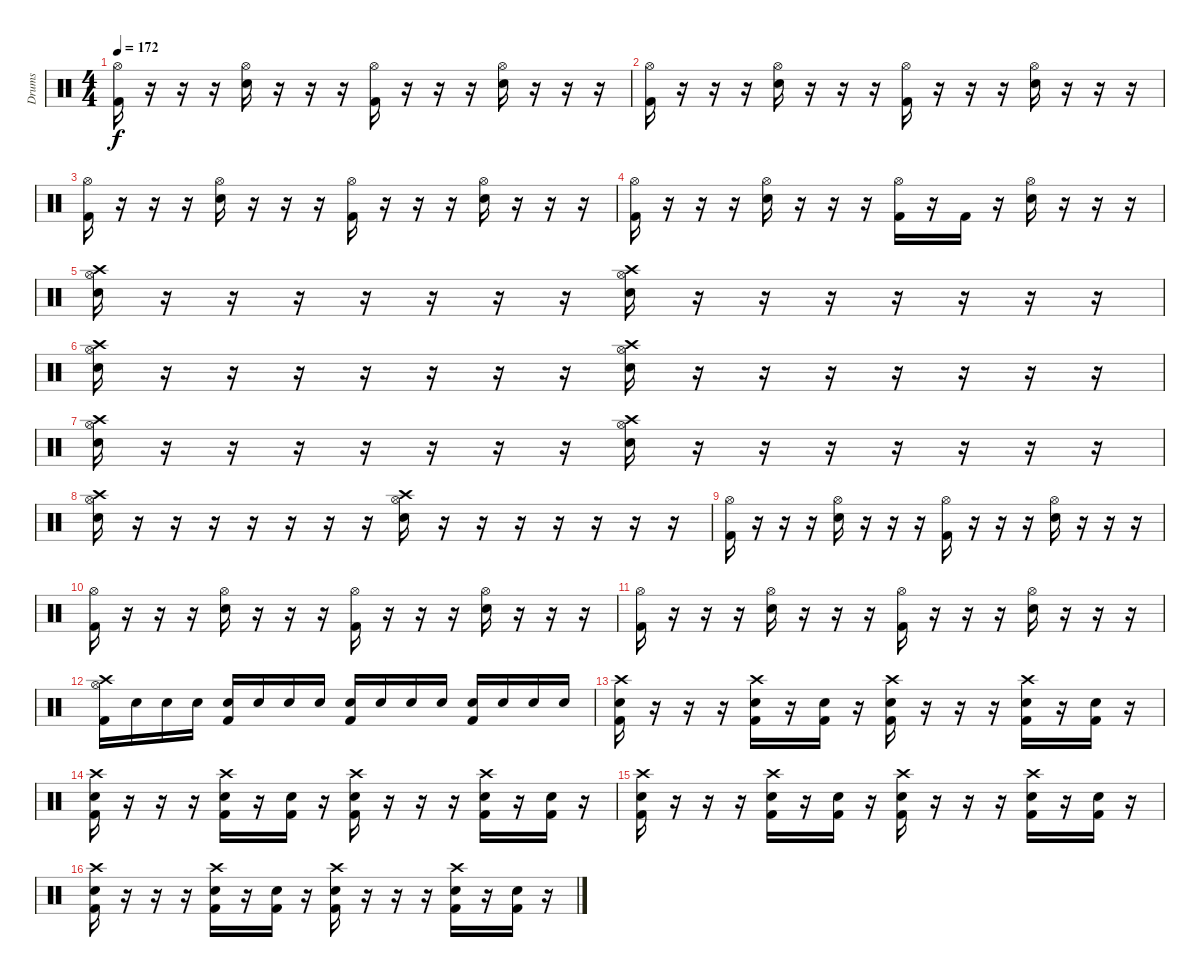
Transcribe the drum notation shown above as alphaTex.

\track ("Drums" "Drums") {instrument percussion}
\staff {score}
\articulation defaults
\ts (4 4)
\tempo 172
\clef neutral
\ks c
("Hi-Hat (open)" "Kick (hit) 2").16{dy f} r.16 r.16 r.16 ("Hi-Hat (open)" "Electric Snare (hit)").16 r.16 r.16 r.16 ("Hi-Hat (open)" "Kick (hit) 2").16 r.16 r.16 r.16 ("Hi-Hat (open)" "Electric Snare (hit)").16 r.16 r.16 r.16 |
("Hi-Hat (open)" "Kick (hit) 2").16 r.16 r.16 r.16 ("Hi-Hat (open)" "Electric Snare (hit)").16 r.16 r.16 r.16 ("Hi-Hat (open)" "Kick (hit) 2").16 r.16 r.16 r.16 ("Hi-Hat (open)" "Electric Snare (hit)").16 r.16 r.16 r.16 |
("Hi-Hat (open)" "Kick (hit) 2").16 r.16 r.16 r.16 ("Hi-Hat (open)" "Electric Snare (hit)").16 r.16 r.16 r.16 ("Hi-Hat (open)" "Kick (hit) 2").16 r.16 r.16 r.16 ("Hi-Hat (open)" "Electric Snare (hit)").16 r.16 r.16 r.16 |
("Hi-Hat (open)" "Kick (hit) 2").16 r.16 r.16 r.16 ("Hi-Hat (open)" "Electric Snare (hit)").16 r.16 r.16 r.16 ("Hi-Hat (open)" "Kick (hit) 2").16 r.16 "Kick (hit) 2".16 r.16 ("Hi-Hat (open)" "Electric Snare (hit)").16 r.16 r.16 r.16 |
("Crash high (hit)" "Hi-Hat (open)" "Electric Snare (hit)").16 r.16 r.16 r.16 r.16 r.16 r.16 r.16 ("Crash high (hit)" "Hi-Hat (open)" "Electric Snare (hit)").16 r.16 r.16 r.16 r.16 r.16 r.16 r.16 |
("Crash high (hit)" "Hi-Hat (open)" "Electric Snare (hit)").16 r.16 r.16 r.16 r.16 r.16 r.16 r.16 ("Crash high (hit)" "Hi-Hat (open)" "Electric Snare (hit)").16 r.16 r.16 r.16 r.16 r.16 r.16 r.16 |
("Crash high (hit)" "Hi-Hat (open)" "Electric Snare (hit)").16 r.16 r.16 r.16 r.16 r.16 r.16 r.16 ("Crash high (hit)" "Hi-Hat (open)" "Electric Snare (hit)").16 r.16 r.16 r.16 r.16 r.16 r.16 r.16 |
("Crash high (hit)" "Hi-Hat (open)" "Electric Snare (hit)").16 r.16 r.16 r.16 r.16 r.16 r.16 r.16 ("Crash high (hit)" "Hi-Hat (open)" "Electric Snare (hit)").16 r.16 r.16 r.16 r.16 r.16 r.16 r.16 |
("Hi-Hat (open)" "Kick (hit) 2").16 r.16 r.16 r.16 ("Hi-Hat (open)" "Electric Snare (hit)").16 r.16 r.16 r.16 ("Hi-Hat (open)" "Kick (hit) 2").16 r.16 r.16 r.16 ("Hi-Hat (open)" "Electric Snare (hit)").16 r.16 r.16 r.16 |
("Hi-Hat (open)" "Kick (hit) 2").16 r.16 r.16 r.16 ("Hi-Hat (open)" "Electric Snare (hit)").16 r.16 r.16 r.16 ("Hi-Hat (open)" "Kick (hit) 2").16 r.16 r.16 r.16 ("Hi-Hat (open)" "Electric Snare (hit)").16 r.16 r.16 r.16 |
("Hi-Hat (open)" "Kick (hit) 2").16 r.16 r.16 r.16 ("Hi-Hat (open)" "Electric Snare (hit)").16 r.16 r.16 r.16 ("Hi-Hat (open)" "Kick (hit) 2").16 r.16 r.16 r.16 ("Hi-Hat (open)" "Electric Snare (hit)").16 r.16 r.16 r.16 |
("Crash high (hit)" "Hi-Hat (open)" "Kick (hit) 2").16 "Electric Snare (hit)".16 "Electric Snare (hit)".16 "Electric Snare (hit)".16 ("Electric Snare (hit)" "Kick (hit) 2").16 "Electric Snare (hit)".16 "Electric Snare (hit)".16 "Electric Snare (hit)".16 ("Electric Snare (hit)" "Kick (hit) 2").16 "Electric Snare (hit)".16 "Electric Snare (hit)".16 "Electric Snare (hit)".16 ("Electric Snare (hit)" "Kick (hit) 2").16 "Electric Snare (hit)".16 "Electric Snare (hit)".16 "Electric Snare (hit)".16 |
("Crash high (hit)" "Electric Snare (hit)" "Kick (hit) 2").16 r.16 r.16 r.16 ("Crash high (hit)" "Electric Snare (hit)" "Kick (hit) 2").16 r.16 ("Electric Snare (hit)" "Kick (hit) 2").16 r.16 ("Crash high (hit)" "Electric Snare (hit)" "Kick (hit) 2").16 r.16 r.16 r.16 ("Crash high (hit)" "Electric Snare (hit)" "Kick (hit) 2").16 r.16 ("Electric Snare (hit)" "Kick (hit) 2").16 r.16 |
("Crash high (hit)" "Electric Snare (hit)" "Kick (hit) 2").16 r.16 r.16 r.16 ("Crash high (hit)" "Electric Snare (hit)" "Kick (hit) 2").16 r.16 ("Electric Snare (hit)" "Kick (hit) 2").16 r.16 ("Crash high (hit)" "Electric Snare (hit)" "Kick (hit) 2").16 r.16 r.16 r.16 ("Crash high (hit)" "Electric Snare (hit)" "Kick (hit) 2").16 r.16 ("Electric Snare (hit)" "Kick (hit) 2").16 r.16 |
("Crash high (hit)" "Electric Snare (hit)" "Kick (hit) 2").16 r.16 r.16 r.16 ("Crash high (hit)" "Electric Snare (hit)" "Kick (hit) 2").16 r.16 ("Electric Snare (hit)" "Kick (hit) 2").16 r.16 ("Crash high (hit)" "Electric Snare (hit)" "Kick (hit) 2").16 r.16 r.16 r.16 ("Crash high (hit)" "Electric Snare (hit)" "Kick (hit) 2").16 r.16 ("Electric Snare (hit)" "Kick (hit) 2").16 r.16 |
("Crash high (hit)" "Electric Snare (hit)" "Kick (hit) 2").16 r.16 r.16 r.16 ("Crash high (hit)" "Electric Snare (hit)" "Kick (hit) 2").16 r.16 ("Electric Snare (hit)" "Kick (hit) 2").16 r.16 ("Crash high (hit)" "Electric Snare (hit)" "Kick (hit) 2").16 r.16 r.16 r.16 ("Crash high (hit)" "Electric Snare (hit)" "Kick (hit) 2").16 r.16 ("Electric Snare (hit)" "Kick (hit) 2").16 r.16
